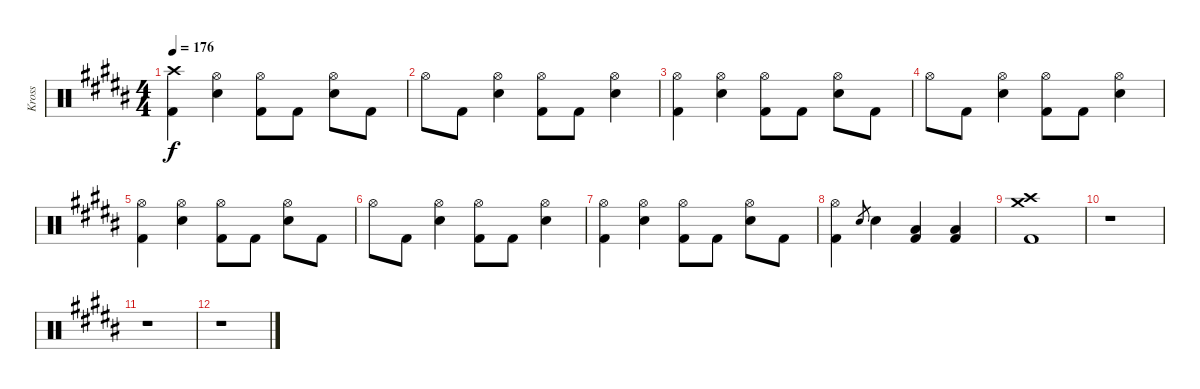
\track ("Kross" "Kross") {instrument percussion}
\staff {score}
\articulation defaults
\ts (4 4)
\tempo 176
\clef neutral
\ks b
("Crash high (hit)" "Kick (hit) 2").4{dy f} ("Hi-Hat (open)" "Electric Snare (hit)").4 ("Hi-Hat (open)" "Kick (hit) 2").8 "Kick (hit) 2".8 ("Hi-Hat (open)" "Electric Snare (hit)").8 "Kick (hit) 2".8 |
"Hi-Hat (open)".8 "Kick (hit) 2".8 ("Hi-Hat (open)" "Electric Snare (hit)").4 ("Hi-Hat (open)" "Kick (hit) 2").8 "Kick (hit) 2".8 ("Hi-Hat (open)" "Electric Snare (hit)").4 |
("Hi-Hat (open)" "Kick (hit) 2").4 ("Hi-Hat (open)" "Electric Snare (hit)").4 ("Hi-Hat (open)" "Kick (hit) 2").8 "Kick (hit) 2".8 ("Hi-Hat (open)" "Electric Snare (hit)").8 "Kick (hit) 2".8 |
"Hi-Hat (open)".8 "Kick (hit) 2".8 ("Hi-Hat (open)" "Electric Snare (hit)").4 ("Hi-Hat (open)" "Kick (hit) 2").8 "Kick (hit) 2".8 ("Hi-Hat (open)" "Electric Snare (hit)").4 |
("Hi-Hat (open)" "Kick (hit) 2").4 ("Hi-Hat (open)" "Electric Snare (hit)").4 ("Hi-Hat (open)" "Kick (hit) 2").8 "Kick (hit) 2".8 ("Hi-Hat (open)" "Electric Snare (hit)").8 "Kick (hit) 2".8 |
"Hi-Hat (open)".8 "Kick (hit) 2".8 ("Hi-Hat (open)" "Electric Snare (hit)").4 ("Hi-Hat (open)" "Kick (hit) 2").8 "Kick (hit) 2".8 ("Hi-Hat (open)" "Electric Snare (hit)").4 |
("Hi-Hat (open)" "Kick (hit) 2").4 ("Hi-Hat (open)" "Electric Snare (hit)").4 ("Hi-Hat (open)" "Kick (hit) 2").8 "Kick (hit) 2".8 ("Hi-Hat (open)" "Electric Snare (hit)").8 "Kick (hit) 2".8 |
("Hi-Hat (open)" "Kick (hit) 2").4 "Electric Snare (hit)".8{gr} "Electric Snare (hit)".4 ("Low Tom (hit)" "Kick (hit) 2").4 ("Low Tom (hit)" "Kick (hit) 2").4 |
("Crash high (hit)" "Crash medium (hit)" "Kick (hit) 2").1 |
r.1 |
r.1 |
r.1
